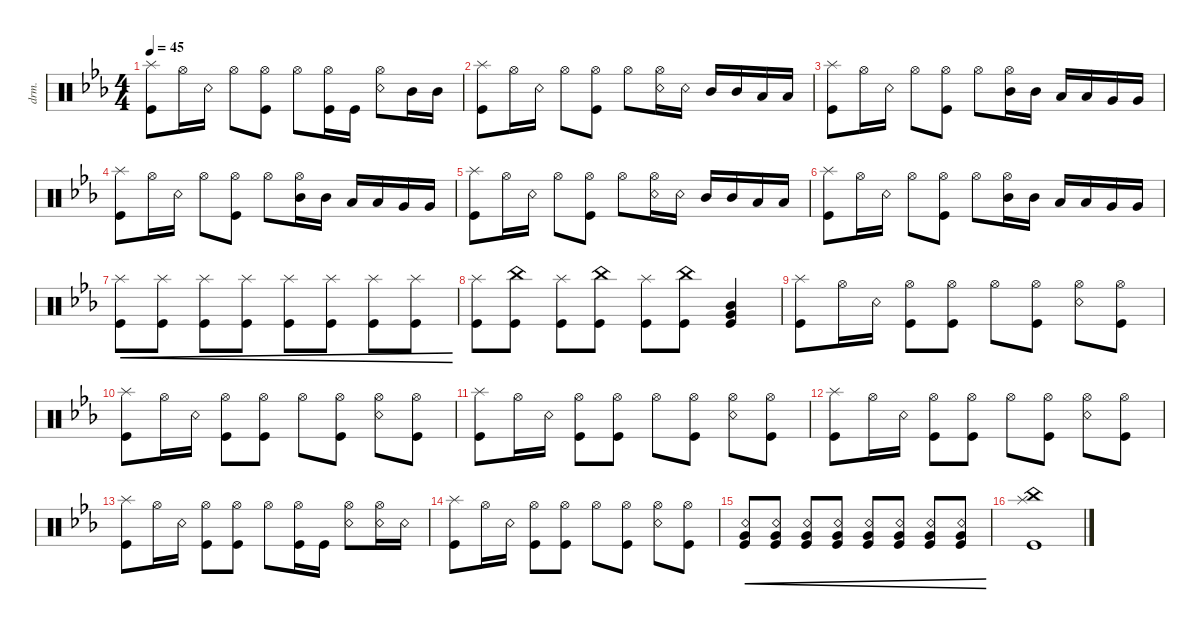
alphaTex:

\defaultSystemsLayout 4
\hideDynamics
\bracketExtendMode nobrackets
\otherSystemsTrackNameOrientation horizontal
\track ("Drumkit" "drm.") {instrument percussion}
\staff {score}
\articulation defaults
\ts (4 4)
\tempo 45
\clef neutral
\ks cminor
("Splash (hit)" "Kick (hit)").8{dy ff} "Hi-Hat (open)".16 "Snare (rim shot)".16 "Hi-Hat (open)".8 ("Hi-Hat (open)" "Kick (hit)").8 "Hi-Hat (open)".8 ("Hi-Hat (open)" "Kick (hit)").16 "Kick (hit)".16 ("Hi-Hat (open)" "Snare (rim shot)").8 "Mid Tom (hit)".16 "Mid Tom (hit)".16 |
("Splash (hit)" "Kick (hit)").8 "Hi-Hat (open)".16 "Snare (rim shot)".16 "Hi-Hat (open)".8 ("Hi-Hat (open)" "Kick (hit)").8 "Hi-Hat (open)".8 ("Hi-Hat (open)" "Snare (rim shot)").16 "Snare (rim shot)".16 "Mid Tom (hit)".16 "Mid Tom (hit)".16 "Low Tom (hit)".16 "Low Tom (hit)".16 |
("Splash (hit)" "Kick (hit)").8 "Hi-Hat (open)".16 "Snare (rim shot)".16 "Hi-Hat (open)".8 ("Hi-Hat (open)" "Kick (hit)").8 "Hi-Hat (open)".8 ("Hi-Hat (open)" "Mid Tom (hit)").16 "Mid Tom (hit)".16 "Low Tom (hit)".16 "Low Tom (hit)".16 "Very Low Tom (hit)".16 "Very Low Tom (hit)".16 |
("Splash (hit)" "Kick (hit)").8 "Hi-Hat (open)".16 "Snare (rim shot)".16 "Hi-Hat (open)".8 ("Hi-Hat (open)" "Kick (hit)").8 "Hi-Hat (open)".8 ("Hi-Hat (open)" "Mid Tom (hit)").16 "Mid Tom (hit)".16 "Low Tom (hit)".16 "Low Tom (hit)".16 "Very Low Tom (hit)".16 "Very Low Tom (hit)".16 |
("Splash (hit)" "Kick (hit)").8 "Hi-Hat (open)".16 "Snare (rim shot)".16 "Hi-Hat (open)".8 ("Hi-Hat (open)" "Kick (hit)").8 "Hi-Hat (open)".8 ("Hi-Hat (open)" "Snare (rim shot)").16 "Snare (rim shot)".16 "Mid Tom (hit)".16 "Mid Tom (hit)".16 "Low Tom (hit)".16 "Low Tom (hit)".16 |
("Splash (hit)" "Kick (hit)").8 "Hi-Hat (open)".16 "Snare (rim shot)".16 "Hi-Hat (open)".8 ("Hi-Hat (open)" "Kick (hit)").8 "Hi-Hat (open)".8 ("Hi-Hat (open)" "Mid Tom (hit)").16 "Mid Tom (hit)".16 "Low Tom (hit)".16 "Low Tom (hit)".16 "Very Low Tom (hit)".16 "Very Low Tom (hit)".16 |
("Kick (hit)" "Splash (hit)").8{cre dy mf} ("Kick (hit)" "Splash (hit)").8{cre} ("Kick (hit)" "Splash (hit)").8{cre} ("Kick (hit)" "Splash (hit)").8{cre} ("Kick (hit)" "Splash (hit)").8{cre dy f} ("Kick (hit)" "Splash (hit)").8{cre} ("Kick (hit)" "Splash (hit)").8{cre dy ff} ("Kick (hit)" "Splash (hit)").8{cre} |
("Kick (hit)" "Splash (hit)").8 ("Kick (hit)" "China (hit)").8 ("Kick (hit)" "Splash (hit)").8 ("Kick (hit)" "China (hit)").8 ("Kick (hit)" "Splash (hit)").8 ("Kick (hit)" "China (hit)").8 ("Very Low Tom (hit)" "Kick (hit)" "Mid Tom (hit)").4 |
("Kick (hit)" "Splash (hit)").8 "Hi-Hat (open)".16 "Snare (rim shot)".16 ("Hi-Hat (open)" "Kick (hit)").8 ("Hi-Hat (open)" "Kick (hit)").8 "Hi-Hat (open)".8 ("Hi-Hat (open)" "Kick (hit)").8 ("Hi-Hat (open)" "Snare (rim shot)").8 ("Hi-Hat (open)" "Kick (hit)").8 |
("Kick (hit)" "Splash (hit)").8 "Hi-Hat (open)".16 "Snare (rim shot)".16 ("Hi-Hat (open)" "Kick (hit)").8 ("Hi-Hat (open)" "Kick (hit)").8 "Hi-Hat (open)".8 ("Hi-Hat (open)" "Kick (hit)").8 ("Hi-Hat (open)" "Snare (rim shot)").8 ("Hi-Hat (open)" "Kick (hit)").8 |
("Kick (hit)" "Splash (hit)").8 "Hi-Hat (open)".16 "Snare (rim shot)".16 ("Hi-Hat (open)" "Kick (hit)").8 ("Hi-Hat (open)" "Kick (hit)").8 "Hi-Hat (open)".8 ("Hi-Hat (open)" "Kick (hit)").8 ("Hi-Hat (open)" "Snare (rim shot)").8 ("Hi-Hat (open)" "Kick (hit)").8 |
("Kick (hit)" "Splash (hit)").8 "Hi-Hat (open)".16 "Snare (rim shot)".16 ("Hi-Hat (open)" "Kick (hit)").8 ("Hi-Hat (open)" "Kick (hit)").8 "Hi-Hat (open)".8 ("Hi-Hat (open)" "Kick (hit)").8 ("Hi-Hat (open)" "Snare (rim shot)").8 ("Hi-Hat (open)" "Kick (hit)").8 |
("Kick (hit)" "Splash (hit)").8 "Hi-Hat (open)".16 "Snare (rim shot)".16 ("Hi-Hat (open)" "Kick (hit)").8 ("Hi-Hat (open)" "Kick (hit)").8 "Hi-Hat (open)".8 ("Hi-Hat (open)" "Kick (hit)").16 "Kick (hit)".16 ("Hi-Hat (open)" "Snare (rim shot)").8 ("Hi-Hat (open)" "Snare (rim shot)").16 "Snare (rim shot)".16 |
("Kick (hit)" "Splash (hit)").8 "Hi-Hat (open)".16 "Snare (rim shot)".16 ("Hi-Hat (open)" "Kick (hit)").8 ("Hi-Hat (open)" "Kick (hit)").8 "Hi-Hat (open)".8 ("Hi-Hat (open)" "Kick (hit)").8 ("Hi-Hat (open)" "Snare (rim shot)").8 ("Hi-Hat (open)" "Kick (hit)").8 |
("Kick (hit)" "Very Low Tom (hit)" "Snare (rim shot)").8{cre dy mf} ("Kick (hit)" "Very Low Tom (hit)" "Snare (rim shot)").8{cre} ("Kick (hit)" "Very Low Tom (hit)" "Snare (rim shot)").8{cre} ("Kick (hit)" "Very Low Tom (hit)" "Snare (rim shot)").8{cre} ("Kick (hit)" "Very Low Tom (hit)" "Snare (rim shot)").8{cre dy f} ("Kick (hit)" "Very Low Tom (hit)" "Snare (rim shot)").8{cre} ("Kick (hit)" "Very Low Tom (hit)" "Snare (rim shot)").8{cre dy ff} ("Kick (hit)" "Very Low Tom (hit)" "Snare (rim shot)").8{cre} |
("Splash (hit)" "China (hit)" "Kick (hit)").1
